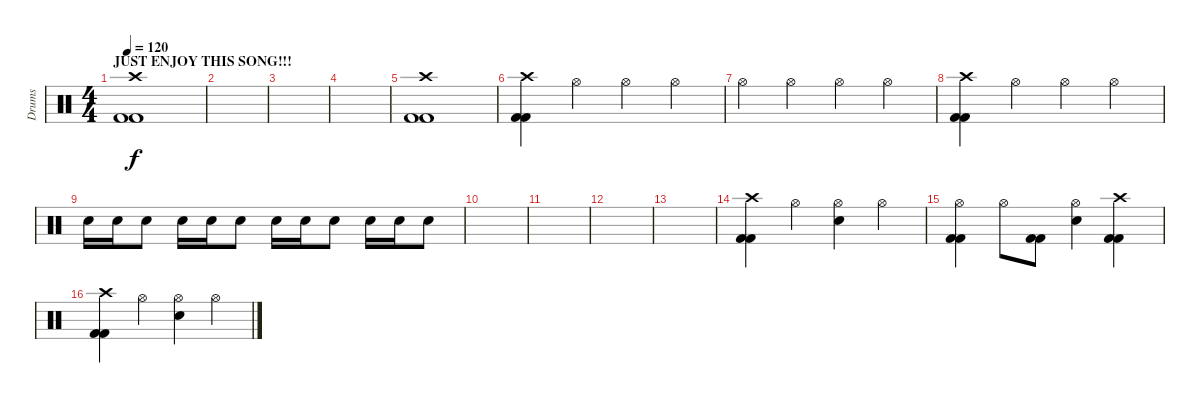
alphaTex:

\track ("Drums" "Drums") {instrument percussion}
\staff {score}
\articulation defaults
\ts (4 4)
\section ("" "JUST ENJOY THIS SONG!!!")
\tempo 120
\clef neutral
\ks c
("Kick (hit) 2" "Kick (hit) 2" "Crash high (hit)").1{dy f} |
|
|
|
("Kick (hit) 2" "Kick (hit) 2" "Crash high (hit)").1 |
("Kick (hit) 2" "Kick (hit) 2" "Crash high (hit)").4 "Hi-Hat (open)".4 "Hi-Hat (open)".4 "Hi-Hat (open)".4 |
"Hi-Hat (open)".4 "Hi-Hat (open)".4 "Hi-Hat (open)".4 "Hi-Hat (open)".4 |
("Crash high (hit)" "Kick (hit) 2" "Kick (hit) 2").4 "Hi-Hat (open)".4 "Hi-Hat (open)".4 "Hi-Hat (open)".4 |
"Electric Snare (hit)".16 "Electric Snare (hit)".16 "Electric Snare (hit)".8 "Electric Snare (hit)".16 "Electric Snare (hit)".16 "Electric Snare (hit)".8 "Electric Snare (hit)".16 "Electric Snare (hit)".16 "Electric Snare (hit)".8 "Electric Snare (hit)".16 "Electric Snare (hit)".16 "Electric Snare (hit)".8 |
|
|
|
|
("Crash high (hit)" "Kick (hit) 2" "Kick (hit) 2").4 "Hi-Hat (open)".4 ("Electric Snare (hit)" "Hi-Hat (open)").4 "Hi-Hat (open)".4 |
("Hi-Hat (open)" "Kick (hit) 2" "Kick (hit) 2").4 "Hi-Hat (open)".8 ("Kick (hit) 2" "Kick (hit) 2").8 ("Electric Snare (hit)" "Hi-Hat (open)").4 ("Crash high (hit)" "Kick (hit) 2" "Kick (hit) 2").4 |
("Crash high (hit)" "Kick (hit) 2" "Kick (hit) 2").4 "Hi-Hat (open)".4 ("Electric Snare (hit)" "Hi-Hat (open)").4 "Hi-Hat (open)".4
